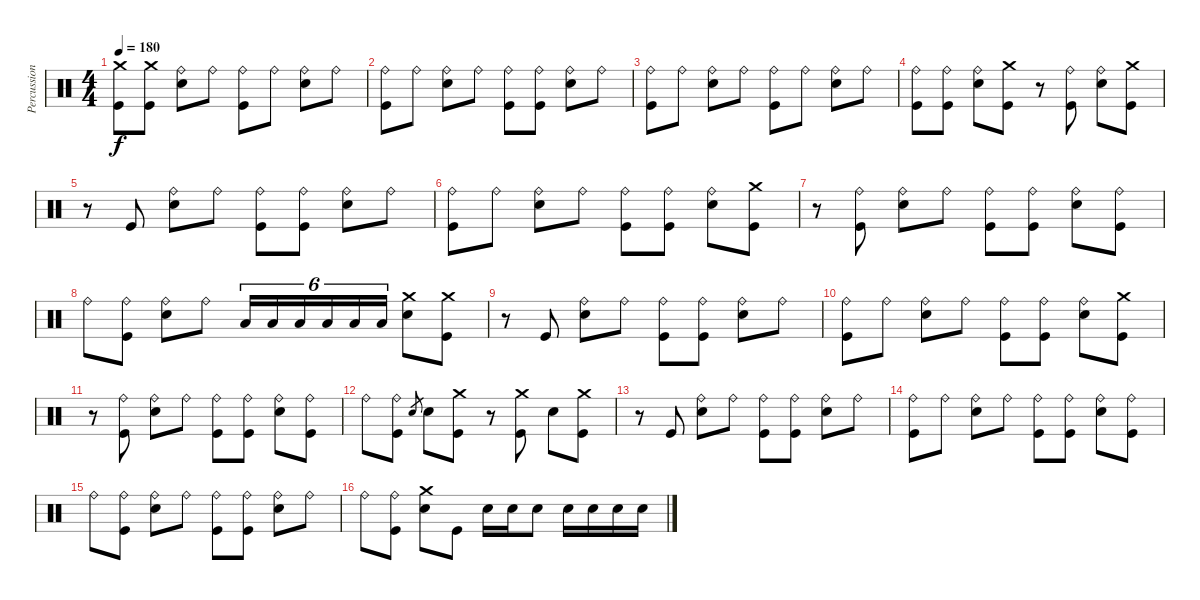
\track ("Percussions" "Percussion") {instrument percussion}
\staff {score}
\articulation defaults
\ts (4 4)
\tempo 180
\clef neutral
\ks c
("Kick (hit)" "Crash medium (hit)").8{dy f} ("Kick (hit)" "Crash medium (hit)").8 ("Electric Snare (hit)" "Ride (bell)").8 "Ride (bell)".8 ("Kick (hit)" "Ride (bell)").8 "Ride (bell)".8 ("Electric Snare (hit)" "Ride (bell)").8 "Ride (bell)".8 |
("Kick (hit)" "Ride (bell)").8 "Ride (bell)".8 ("Electric Snare (hit)" "Ride (bell)").8 "Ride (bell)".8 ("Kick (hit)" "Ride (bell)").8 ("Kick (hit)" "Ride (bell)").8 ("Electric Snare (hit)" "Ride (bell)").8 "Ride (bell)".8 |
("Kick (hit)" "Ride (bell)").8 "Ride (bell)".8 ("Electric Snare (hit)" "Ride (bell)").8 "Ride (bell)".8 ("Kick (hit)" "Ride (bell)").8 "Ride (bell)".8 ("Electric Snare (hit)" "Ride (bell)").8 "Ride (bell)".8 |
("Kick (hit)" "Ride (bell)").8 ("Kick (hit)" "Ride (bell)").8 ("Electric Snare (hit)" "Ride (bell)").8 ("Kick (hit)" "Crash medium (hit)").8 r.8 ("Kick (hit)" "Ride (bell)").8 ("Electric Snare (hit)" "Ride (bell)").8 ("Kick (hit)" "Crash medium (hit)").8 |
r.8 "Kick (hit)".8 ("Electric Snare (hit)" "Ride (bell)").8 "Ride (bell)".8 ("Kick (hit)" "Ride (bell)").8 ("Kick (hit)" "Ride (bell)").8 ("Electric Snare (hit)" "Ride (bell)").8 "Ride (bell)".8 |
("Kick (hit)" "Ride (bell)").8 "Ride (bell)".8 ("Electric Snare (hit)" "Ride (bell)").8 "Ride (bell)".8 ("Kick (hit)" "Ride (bell)").8 ("Kick (hit)" "Ride (bell)").8 ("Electric Snare (hit)" "Ride (bell)").8 ("Kick (hit)" "Crash medium (hit)").8 |
r.8 ("Kick (hit)" "Ride (bell)").8 ("Electric Snare (hit)" "Ride (bell)").8 "Ride (bell)".8 ("Kick (hit)" "Ride (bell)").8 ("Kick (hit)" "Ride (bell)").8 ("Electric Snare (hit)" "Ride (bell)").8 ("Kick (hit)" "Ride (bell)").8 |
"Ride (bell)".8 ("Kick (hit)" "Ride (bell)").8 ("Electric Snare (hit)" "Ride (bell)").8 "Ride (bell)".8 "Low Floor Tom (hit)".16{tu (6 4)} "Low Floor Tom (hit)".16{tu (6 4)} "Low Floor Tom (hit)".16{tu (6 4)} "Low Floor Tom (hit)".16{tu (6 4)} "Low Floor Tom (hit)".16{tu (6 4)} "Low Floor Tom (hit)".16{tu (6 4)} ("Electric Snare (hit)" "Crash medium (hit)").8 ("Kick (hit)" "Crash medium (hit)").8 |
r.8 "Kick (hit)".8 ("Electric Snare (hit)" "Ride (bell)").8 "Ride (bell)".8 ("Kick (hit)" "Ride (bell)").8 ("Kick (hit)" "Ride (bell)").8 ("Electric Snare (hit)" "Ride (bell)").8 "Ride (bell)".8 |
("Kick (hit)" "Ride (bell)").8 "Ride (bell)".8 ("Electric Snare (hit)" "Ride (bell)").8 "Ride (bell)".8 ("Kick (hit)" "Ride (bell)").8 ("Kick (hit)" "Ride (bell)").8 ("Electric Snare (hit)" "Ride (bell)").8 ("Kick (hit)" "Crash medium (hit)").8 |
r.8 ("Kick (hit)" "Ride (bell)").8 ("Electric Snare (hit)" "Ride (bell)").8 "Ride (bell)".8 ("Kick (hit)" "Ride (bell)").8 ("Kick (hit)" "Ride (bell)").8 ("Electric Snare (hit)" "Ride (bell)").8 ("Kick (hit)" "Ride (bell)").8 |
"Ride (bell)".8 ("Kick (hit)" "Ride (bell)").8 "Electric Snare (hit)".8{gr} "Electric Snare (hit)".8 ("Kick (hit)" "Crash medium (hit)").8 r.8 ("Kick (hit)" "Crash medium (hit)").8 "Electric Snare (hit)".8 ("Kick (hit)" "Crash medium (hit)").8 |
r.8 "Kick (hit)".8 ("Electric Snare (hit)" "Ride (bell)").8 "Ride (bell)".8 ("Kick (hit)" "Ride (bell)").8 ("Kick (hit)" "Ride (bell)").8 ("Electric Snare (hit)" "Ride (bell)").8 "Ride (bell)".8 |
("Kick (hit)" "Ride (bell)").8 "Ride (bell)".8 ("Electric Snare (hit)" "Ride (bell)").8 "Ride (bell)".8 ("Kick (hit)" "Ride (bell)").8 ("Kick (hit)" "Ride (bell)").8 ("Electric Snare (hit)" "Ride (bell)").8 ("Kick (hit)" "Ride (bell)").8 |
"Ride (bell)".8 ("Kick (hit)" "Ride (bell)").8 ("Electric Snare (hit)" "Ride (bell)").8 "Ride (bell)".8 ("Kick (hit)" "Ride (bell)").8 ("Kick (hit)" "Ride (bell)").8 ("Electric Snare (hit)" "Ride (bell)").8 "Ride (bell)".8 |
"Ride (bell)".8 ("Kick (hit)" "Ride (bell)").8 ("Electric Snare (hit)" "Crash medium (hit)").8 "Kick (hit)".8 "Electric Snare (hit)".16 "Electric Snare (hit)".16 "Electric Snare (hit)".8 "Electric Snare (hit)".16 "Electric Snare (hit)".16 "Electric Snare (hit)".16 "Electric Snare (hit)".16
